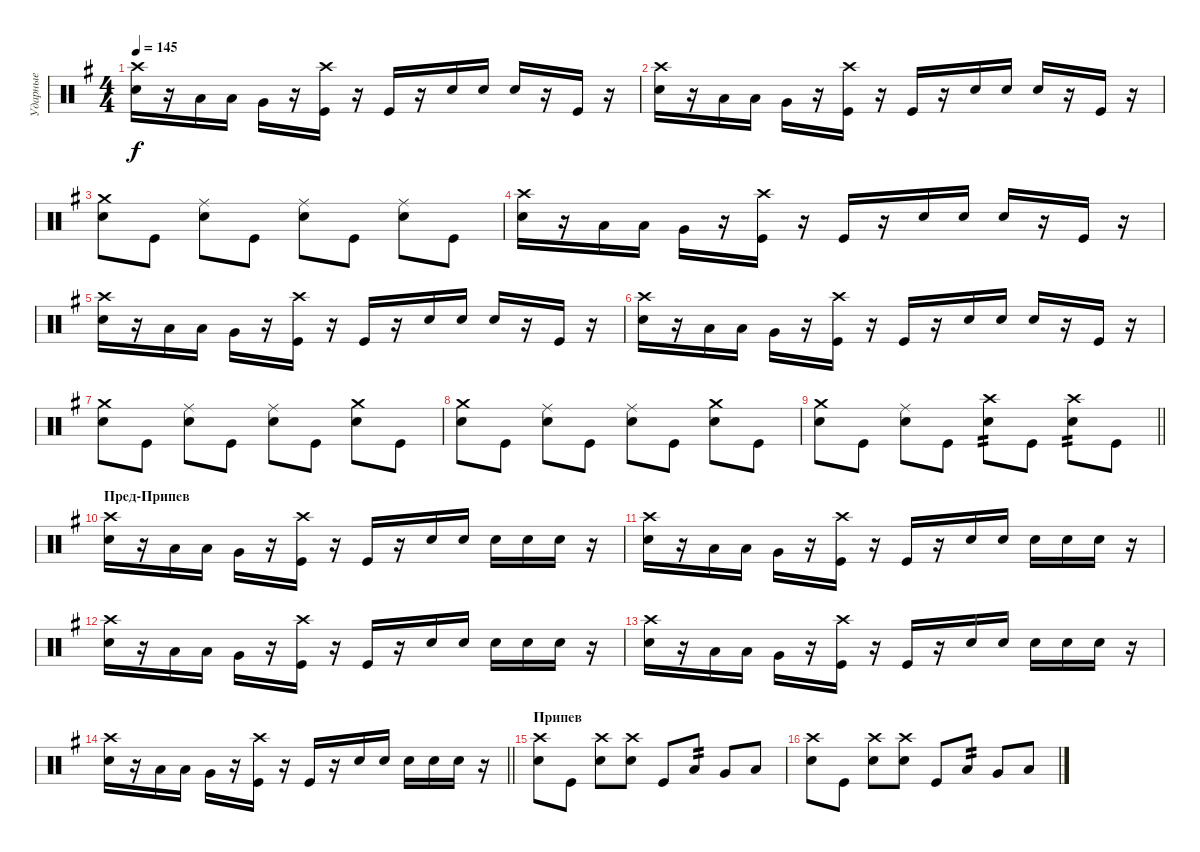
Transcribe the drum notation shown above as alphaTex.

\track ("Ударные" "Ударные") {instrument percussion}
\staff {score}
\articulation defaults
\ts (4 4)
\tempo 145
\clef neutral
\ks eminor
("Crash high (hit)" "Snare (hit) 2").16{dy f} r.16 "Low Tom (hit)".16 "Low Tom (hit)".16 "Very Low Tom (hit)".16 r.16 ("Crash high (hit)" "Kick (hit)").16 r.16 "Kick (hit)".16 r.16 "Snare (hit) 2".16 "Snare (hit) 2".16 "Snare (hit) 2".16 r.16 "Kick (hit)".16 r.16 |
("Crash high (hit)" "Snare (hit) 2").16 r.16 "Low Tom (hit)".16 "Low Tom (hit)".16 "Very Low Tom (hit)".16 r.16 ("Crash high (hit)" "Kick (hit)").16 r.16 "Kick (hit)".16 r.16 "Snare (hit) 2".16 "Snare (hit) 2".16 "Snare (hit) 2".16 r.16 "Kick (hit)".16 r.16 |
("Crash medium (hit)" "Snare (hit) 2").8 "Kick (hit)".8 ("Ride (middle)" "Snare (hit) 2").8 "Kick (hit)".8 ("Ride (middle)" "Snare (hit) 2").8 "Kick (hit)".8 ("Ride (middle)" "Snare (hit) 2").8 "Kick (hit)".8 |
("Crash high (hit)" "Snare (hit) 2").16 r.16 "Low Tom (hit)".16 "Low Tom (hit)".16 "Very Low Tom (hit)".16 r.16 ("Crash high (hit)" "Kick (hit)").16 r.16 "Kick (hit)".16 r.16 "Snare (hit) 2".16 "Snare (hit) 2".16 "Snare (hit) 2".16 r.16 "Kick (hit)".16 r.16 |
("Crash high (hit)" "Snare (hit) 2").16 r.16 "Low Tom (hit)".16 "Low Tom (hit)".16 "Very Low Tom (hit)".16 r.16 ("Crash high (hit)" "Kick (hit)").16 r.16 "Kick (hit)".16 r.16 "Snare (hit) 2".16 "Snare (hit) 2".16 "Snare (hit) 2".16 r.16 "Kick (hit)".16 r.16 |
("Crash high (hit)" "Snare (hit) 2").16 r.16 "Low Tom (hit)".16 "Low Tom (hit)".16 "Very Low Tom (hit)".16 r.16 ("Crash high (hit)" "Kick (hit)").16 r.16 "Kick (hit)".16 r.16 "Snare (hit) 2".16 "Snare (hit) 2".16 "Snare (hit) 2".16 r.16 "Kick (hit)".16 r.16 |
("Crash medium (hit)" "Snare (hit) 2").8 "Kick (hit)".8 ("Ride (middle)" "Snare (hit) 2").8 "Kick (hit)".8 ("Ride (middle)" "Snare (hit) 2").8 "Kick (hit)".8 ("Crash medium (hit)" "Snare (hit) 2").8 "Kick (hit)".8 |
("Crash medium (hit)" "Snare (hit) 2").8 "Kick (hit)".8 ("Ride (middle)" "Snare (hit) 2").8 "Kick (hit)".8 ("Ride (middle)" "Snare (hit) 2").8 "Kick (hit)".8 ("Crash medium (hit)" "Snare (hit) 2").8 "Kick (hit)".8 |
\barLineRight lightlight
("Crash medium (hit)" "Snare (hit) 2").8 "Kick (hit)".8 ("Ride (middle)" "Snare (hit) 2").8 "Kick (hit)".8 ("Crash high (hit)" "Snare (hit) 2").8{tp 2} "Kick (hit)".8 ("Crash high (hit)" "Snare (hit) 2").8{tp 2} "Kick (hit)".8 |
\section ("" "Пред-Припев")
("Crash high (hit)" "Snare (hit) 2").16 r.16 "Low Tom (hit)".16 "Low Tom (hit)".16 "Very Low Tom (hit)".16 r.16 ("Crash high (hit)" "Kick (hit)").16 r.16 "Kick (hit)".16 r.16 "Snare (hit) 2".16 "Snare (hit) 2".16 "Snare (hit) 2".16 "Snare (hit) 2".16 "Snare (hit) 2".16 r.16 |
("Crash high (hit)" "Snare (hit) 2").16 r.16 "Low Tom (hit)".16 "Low Tom (hit)".16 "Very Low Tom (hit)".16 r.16 ("Crash high (hit)" "Kick (hit)").16 r.16 "Kick (hit)".16 r.16 "Snare (hit) 2".16 "Snare (hit) 2".16 "Snare (hit) 2".16 "Snare (hit) 2".16 "Snare (hit) 2".16 r.16 |
("Crash high (hit)" "Snare (hit) 2").16 r.16 "Low Tom (hit)".16 "Low Tom (hit)".16 "Very Low Tom (hit)".16 r.16 ("Crash high (hit)" "Kick (hit)").16 r.16 "Kick (hit)".16 r.16 "Snare (hit) 2".16 "Snare (hit) 2".16 "Snare (hit) 2".16 "Snare (hit) 2".16 "Snare (hit) 2".16 r.16 |
("Crash high (hit)" "Snare (hit) 2").16 r.16 "Low Tom (hit)".16 "Low Tom (hit)".16 "Very Low Tom (hit)".16 r.16 ("Crash high (hit)" "Kick (hit)").16 r.16 "Kick (hit)".16 r.16 "Snare (hit) 2".16 "Snare (hit) 2".16 "Snare (hit) 2".16 "Snare (hit) 2".16 "Snare (hit) 2".16 r.16 |
\barLineRight lightlight
("Crash high (hit)" "Snare (hit) 2").16 r.16 "Low Tom (hit)".16 "Low Tom (hit)".16 "Very Low Tom (hit)".16 r.16 ("Crash high (hit)" "Kick (hit)").16 r.16 "Kick (hit)".16 r.16 "Snare (hit) 2".16 "Snare (hit) 2".16 "Snare (hit) 2".16 "Snare (hit) 2".16 "Snare (hit) 2".16 r.16 |
\section ("" "Припев")
("Crash high (hit)" "Snare (hit) 2").8 "Kick (hit)".8 ("Crash high (hit)" "Snare (hit) 2").8 ("Crash high (hit)" "Snare (hit) 2").8 "Kick (hit)".8 "Low Tom (hit)".8{tp 2} "Very Low Tom (hit)".8 "Low Floor Tom (hit)".8 |
("Crash high (hit)" "Snare (hit) 2").8 "Kick (hit)".8 ("Crash high (hit)" "Snare (hit) 2").8 ("Crash high (hit)" "Snare (hit) 2").8 "Kick (hit)".8 "Low Tom (hit)".8{tp 2} "Very Low Tom (hit)".8 "Low Floor Tom (hit)".8
